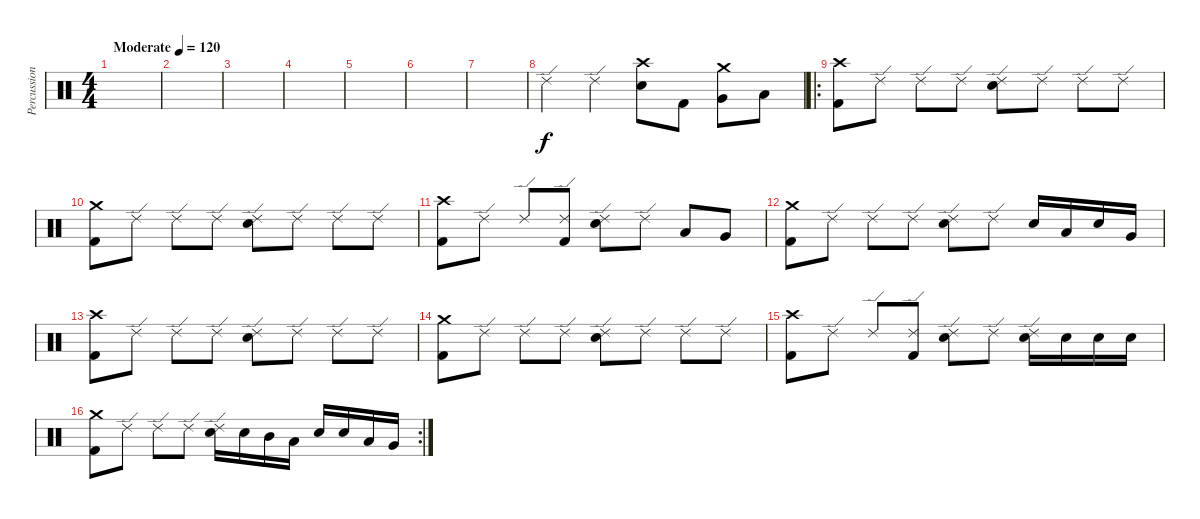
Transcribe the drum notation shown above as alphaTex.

\track ("Percussion" "Percussion") {instrument percussion}
\staff {score}
\articulation defaults
\ts (4 4)
\tempo (120 "Moderate")
\clef neutral
\ks c
|
|
|
|
|
|
|
"Ride (edge) 2".4 "Ride (edge) 2".4 ("Crash high (hit)" "Electric Snare (hit)").8 "Kick (hit) 2".8 ("Crash medium (hit)" "Very Low Tom (hit)").8 "Low Floor Tom (hit)".8 |
\ro
("Crash high (hit)" "Kick (hit) 2").8 "Ride (edge) 2".8 "Ride (edge) 2".8 "Ride (edge) 2".8 ("Ride (edge) 2" "Electric Snare (hit)").8 "Ride (edge) 2".8 "Ride (edge) 2".8 "Ride (edge) 2".8 |
("Crash medium (hit)" "Kick (hit) 2").8 "Ride (edge) 2".8 "Ride (edge) 2".8 "Ride (edge) 2".8 ("Ride (edge) 2" "Electric Snare (hit)").8 "Ride (edge) 2".8 "Ride (edge) 2".8 "Ride (edge) 2".8 |
("Crash high (hit)" "Kick (hit) 2").8 "Ride (edge) 2".8 "Ride (edge) 2".8 ("Ride (edge) 2" "Kick (hit) 2").8 ("Ride (edge) 2" "Electric Snare (hit)").8 "Ride (edge) 2".8 "Low Tom (hit)".8 "Very Low Tom (hit)".8 |
("Crash medium (hit)" "Kick (hit) 2").8 "Ride (edge) 2".8 "Ride (edge) 2".8 "Ride (edge) 2".8 ("Ride (edge) 2" "Electric Snare (hit)").8 "Ride (edge) 2".8 "Electric Snare (hit)".16 "Low Tom (hit)".16 "Electric Snare (hit)".16 "Very Low Tom (hit)".16 |
("Crash high (hit)" "Kick (hit) 2").8 "Ride (edge) 2".8 "Ride (edge) 2".8 "Ride (edge) 2".8 ("Ride (edge) 2" "Electric Snare (hit)").8 "Ride (edge) 2".8 "Ride (edge) 2".8 "Ride (edge) 2".8 |
("Crash medium (hit)" "Kick (hit) 2").8 "Ride (edge) 2".8 "Ride (edge) 2".8 "Ride (edge) 2".8 ("Ride (edge) 2" "Electric Snare (hit)").8 "Ride (edge) 2".8 "Ride (edge) 2".8 "Ride (edge) 2".8 |
("Crash high (hit)" "Kick (hit) 2").8 "Ride (edge) 2".8 "Ride (edge) 2".8 ("Ride (edge) 2" "Kick (hit) 2").8 ("Ride (edge) 2" "Electric Snare (hit)").8 "Ride (edge) 2".8 ("Ride (edge) 2" "Electric Snare (hit)").16 "Electric Snare (hit)".16 "Electric Snare (hit)".16 "Electric Snare (hit)".16 |
\rc 2
("Crash medium (hit)" "Kick (hit) 2").8 "Ride (edge) 2".8 "Ride (edge) 2".8 "Ride (edge) 2".8 ("Ride (edge) 2" "Electric Snare (hit)").16 "Electric Snare (hit)".16 "Mid Tom (hit)".16 "Low Tom (hit)".16 "Electric Snare (hit)".16 "Electric Snare (hit)".16 "Low Tom (hit)".16 "Very Low Tom (hit)".16
